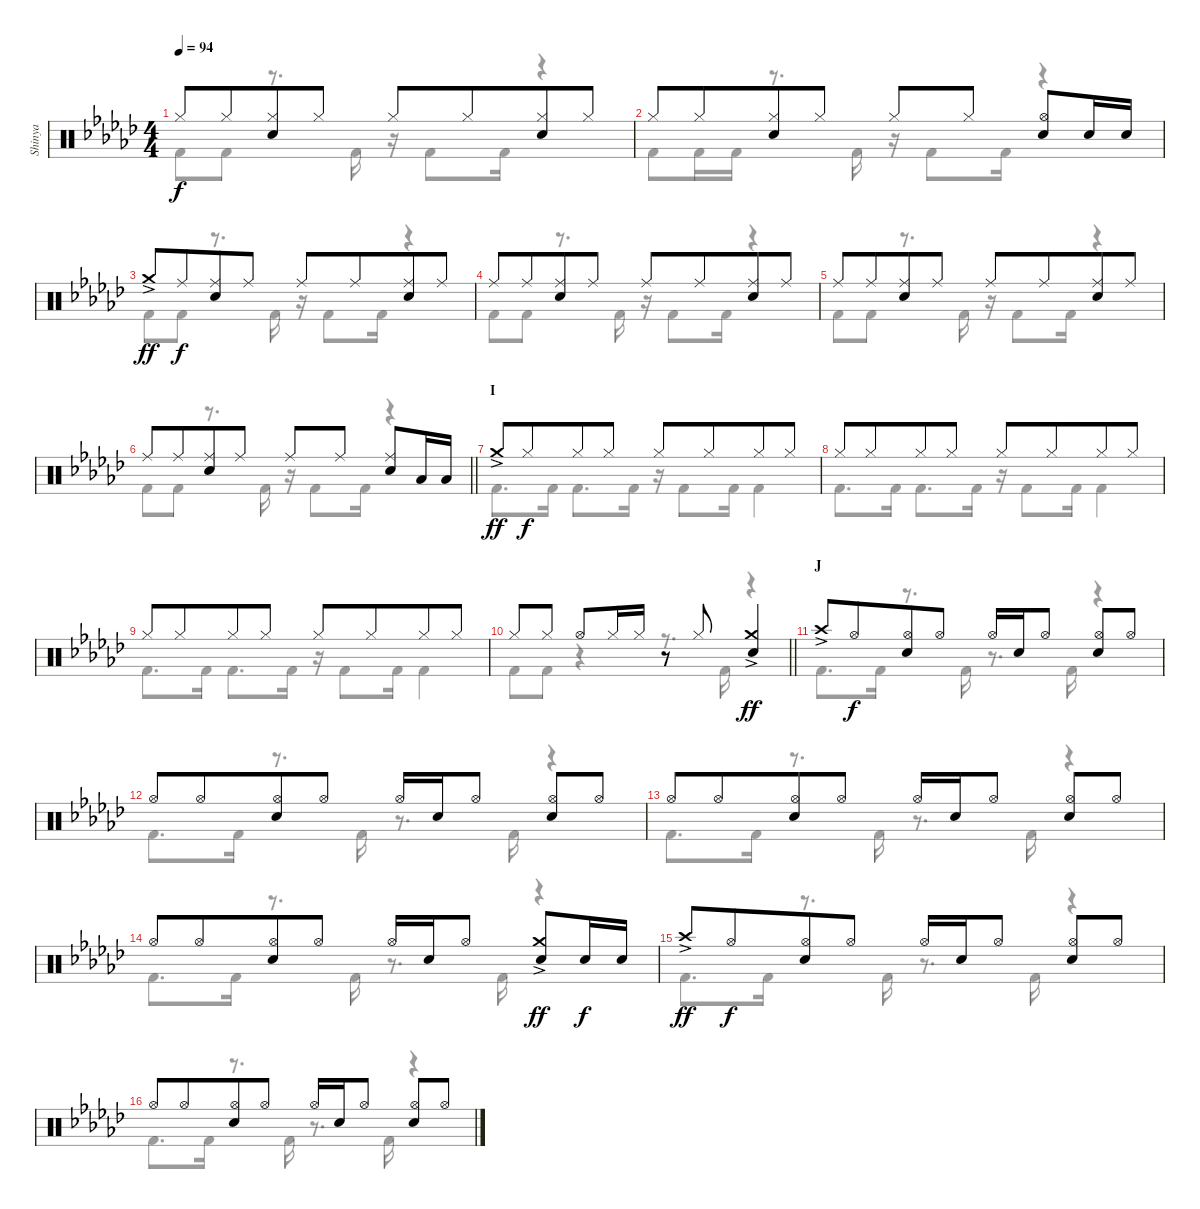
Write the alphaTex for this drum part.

\track ("Shinya" "Shinya") {instrument percussion}
\staff {score}
\articulation defaults
\voice
\ts (4 4)
\tempo 94
\clef neutral
\ks ebminor "Hi-Hat (closed)".8{dy f} "Hi-Hat (closed)".8{beam merge}
("Hi-Hat (closed)" "Snare (hit) 2").8 "Hi-Hat (closed)".8 "Hi-Hat (closed)".8 "Hi-Hat (closed)".8{beam merge} ("Hi-Hat (closed)" "Snare (hit) 2").8 "Hi-Hat (closed)".8 |
"Hi-Hat (closed)".8 "Hi-Hat (closed)".8{beam merge} ("Hi-Hat (closed)" "Snare (hit) 2").8 "Hi-Hat (closed)".8 "Hi-Hat (closed)".8 "Hi-Hat (closed)".8 ("Hi-Hat (open)" "Snare (hit) 2").8 "Snare (hit) 2".16 "Snare (hit) 2".16 |
"Crash medium (hit)"{ac}.8{dy ff} "Ride (middle)".8{dy f beam merge} ("Ride (middle)" "Snare (hit) 2").8 "Ride (middle)".8 "Ride (middle)".8 "Ride (middle)".8{beam merge} ("Ride (middle)" "Snare (hit) 2").8 "Ride (middle)".8 |
"Ride (middle)".8 "Ride (middle)".8{beam merge} ("Ride (middle)" "Snare (hit) 2").8 "Ride (middle)".8 "Ride (middle)".8 "Ride (middle)".8{beam merge} ("Ride (middle)" "Snare (hit) 2").8 "Ride (middle)".8 |
"Ride (middle)".8 "Ride (middle)".8{beam merge} ("Ride (middle)" "Snare (hit) 2").8 "Ride (middle)".8 "Ride (middle)".8 "Ride (middle)".8{beam merge} ("Ride (middle)" "Snare (hit) 2").8 "Ride (middle)".8 |
\barLineRight lightlight "Ride (middle)".8 "Ride (middle)".8{beam merge}
("Ride (middle)" "Snare (hit) 2").8 "Ride (middle)".8 "Ride (middle)".8 "Ride (middle)".8 ("Ride (middle)" "Snare (hit) 2").8 "Low Tom (hit)".16 "Low Tom (hit)".16 |
\section ("" "I")
"Crash medium (hit)"{ac}.8{dy ff} "Hi-Hat (closed)".8{dy f beam merge} "Hi-Hat (closed)".8 "Hi-Hat (closed)".8 "Hi-Hat (closed)".8 "Hi-Hat (closed)".8{beam merge} "Hi-Hat (closed)".8 "Hi-Hat (closed)".8 |
"Hi-Hat (closed)".8 "Hi-Hat (closed)".8{beam merge} "Hi-Hat (closed)".8 "Hi-Hat (closed)".8 "Hi-Hat (closed)".8 "Hi-Hat (closed)".8{beam merge} "Hi-Hat (closed)".8 "Hi-Hat (closed)".8 |
"Hi-Hat (closed)".8 "Hi-Hat (closed)".8{beam merge} "Hi-Hat (closed)".8 "Hi-Hat (closed)".8 "Hi-Hat (closed)".8 "Hi-Hat (closed)".8{beam merge} "Hi-Hat (closed)".8 "Hi-Hat (closed)".8 |
\barLineRight lightlight "Hi-Hat (closed)".8 "Hi-Hat (closed)".8 "Hi-Hat (open)".8 "Hi-Hat (closed)".16 "Hi-Hat (closed)".16
r.8 "Hi-Hat (closed)".8 ("Crash medium (hit)"{ac} "Snare (hit) 2").4{dy ff} |
\section ("" "J")
"Crash high (hit)"{ac}.8 "Hi-Hat (open)".8{dy f beam merge} ("Hi-Hat (open)" "Snare (hit) 2").8 "Hi-Hat (open)".8 "Hi-Hat (open)".16 "Snare (hit) 2".16 "Hi-Hat (open)".8 ("Hi-Hat (open)" "Snare (hit) 2").8 "Hi-Hat (open)".8 |
"Hi-Hat (open)".8 "Hi-Hat (open)".8{beam merge} ("Hi-Hat (open)" "Snare (hit) 2").8 "Hi-Hat (open)".8 "Hi-Hat (open)".16 "Snare (hit) 2".16 "Hi-Hat (open)".8 ("Hi-Hat (open)" "Snare (hit) 2").8 "Hi-Hat (open)".8 |
"Hi-Hat (open)".8 "Hi-Hat (open)".8{beam merge} ("Hi-Hat (open)" "Snare (hit) 2").8 "Hi-Hat (open)".8 "Hi-Hat (open)".16 "Snare (hit) 2".16 "Hi-Hat (open)".8 ("Hi-Hat (open)" "Snare (hit) 2").8 "Hi-Hat (open)".8 |
"Hi-Hat (open)".8 "Hi-Hat (open)".8{beam merge} ("Hi-Hat (open)" "Snare (hit) 2").8 "Hi-Hat (open)".8 "Hi-Hat (open)".16 "Snare (hit) 2".16 "Hi-Hat (open)".8 ("Crash medium (hit)"{ac} "Snare (hit) 2").8{dy ff} "Snare (hit) 2".16{dy f} "Snare (hit) 2".16 |
"Crash high (hit)"{ac}.8{dy ff} "Hi-Hat (open)".8{dy f beam merge} ("Hi-Hat (open)" "Snare (hit) 2").8 "Hi-Hat (open)".8 "Hi-Hat (open)".16 "Snare (hit) 2".16 "Hi-Hat (open)".8 ("Hi-Hat (open)" "Snare (hit) 2").8 "Hi-Hat (open)".8 |
"Hi-Hat (open)".8 "Hi-Hat (open)".8{beam merge} ("Hi-Hat (open)" "Snare (hit) 2").8 "Hi-Hat (open)".8 "Hi-Hat (open)".16 "Snare (hit) 2".16 "Hi-Hat (open)".8 ("Hi-Hat (open)" "Snare (hit) 2").8 "Hi-Hat (open)".8
\voice
\clef neutral
\ottava regular
\simile none
\ks ebminor "Kick (hit) 2".8{dy f} "Kick (hit) 2".8
r.8{d} "Kick (hit) 2".16 r.16 "Kick (hit) 2".8 "Kick (hit) 2".16 r.4 |
"Kick (hit) 2".8 "Kick (hit) 2".16 "Kick (hit) 2".16 r.8{d} "Kick (hit) 2".16 r.16 "Kick (hit) 2".8 "Kick (hit) 2".16 r.4 |
"Kick (hit) 2".8 "Kick (hit) 2".8 r.8{d} "Kick (hit) 2".16 r.16 "Kick (hit) 2".8 "Kick (hit) 2".16 r.4 |
"Kick (hit) 2".8 "Kick (hit) 2".8 r.8{d} "Kick (hit) 2".16 r.16 "Kick (hit) 2".8 "Kick (hit) 2".16 r.4 |
"Kick (hit) 2".8 "Kick (hit) 2".8 r.8{d} "Kick (hit) 2".16 r.16 "Kick (hit) 2".8 "Kick (hit) 2".16 r.4 |
\barLineRight lightlight "Kick (hit) 2".8 "Kick (hit) 2".8
r.8{d} "Kick (hit) 2".16 r.16 "Kick (hit) 2".8 "Kick (hit) 2".16 r.4 |
"Kick (hit) 2".8{d} "Kick (hit) 2".16 "Kick (hit) 2".8{d} "Kick (hit) 2".16 r.16 "Kick (hit) 2".8 "Kick (hit) 2".16 "Kick (hit) 2".4 |
"Kick (hit) 2".8{d} "Kick (hit) 2".16 "Kick (hit) 2".8{d} "Kick (hit) 2".16 r.16 "Kick (hit) 2".8 "Kick (hit) 2".16 "Kick (hit) 2".4 |
"Kick (hit) 2".8{d} "Kick (hit) 2".16 "Kick (hit) 2".8{d} "Kick (hit) 2".16 r.16 "Kick (hit) 2".8 "Kick (hit) 2".16 "Kick (hit) 2".4 |
\barLineRight lightlight "Kick (hit) 2".8 "Kick (hit) 2".8
r.4 r.8{d} "Kick (hit) 2".16 r.4 |
"Kick (hit) 2".8{d} "Kick (hit) 2".16 r.8{d} "Kick (hit) 2".16 r.8{d} "Kick (hit) 2".16 r.4 |
"Kick (hit) 2".8{d} "Kick (hit) 2".16 r.8{d} "Kick (hit) 2".16 r.8{d} "Kick (hit) 2".16 r.4 |
"Kick (hit) 2".8{d} "Kick (hit) 2".16 r.8{d} "Kick (hit) 2".16 r.8{d} "Kick (hit) 2".16 r.4 |
"Kick (hit) 2".8{d} "Kick (hit) 2".16 r.8{d} "Kick (hit) 2".16 r.8{d} "Kick (hit) 2".16 r.4 |
"Kick (hit) 2".8{d} "Kick (hit) 2".16 r.8{d} "Kick (hit) 2".16 r.8{d} "Kick (hit) 2".16 r.4 |
"Kick (hit) 2".8{d} "Kick (hit) 2".16 r.8{d} "Kick (hit) 2".16 r.8{d} "Kick (hit) 2".16 r.4
